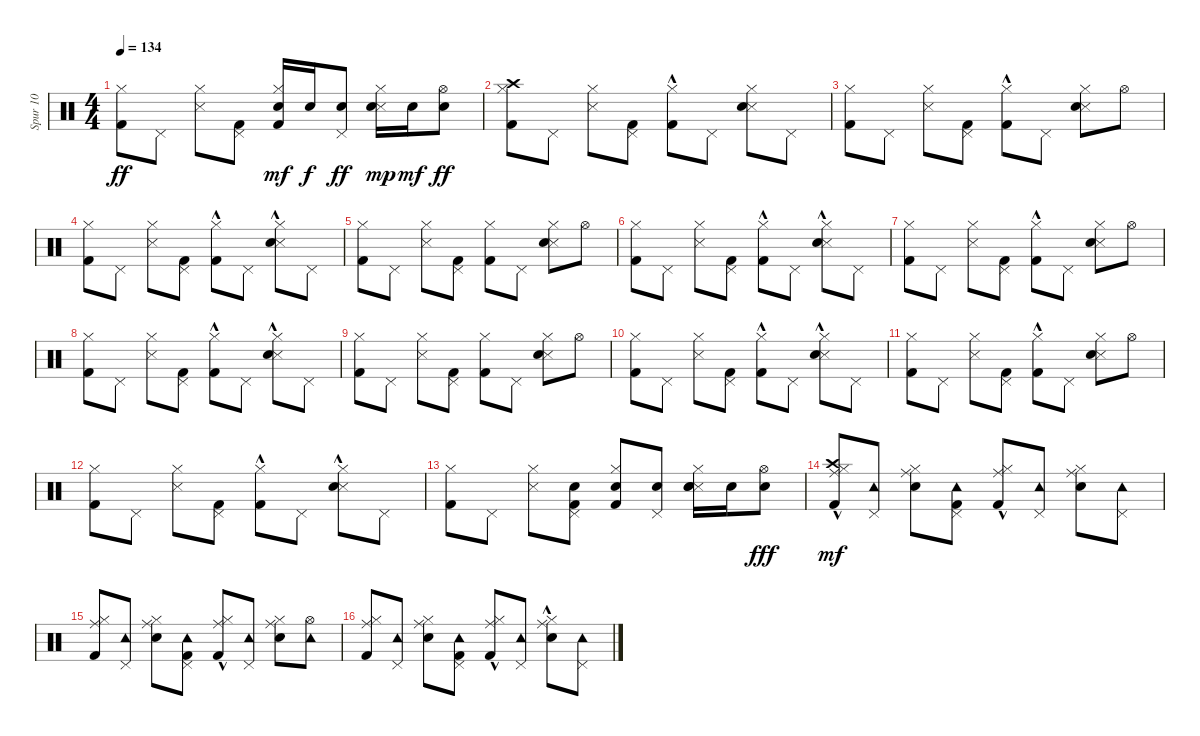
\track ("Spur 10" "Spur 10") {instrument percussion}
\staff {score}
\articulation defaults
\ts (4 4)
\tempo 134
\clef neutral
\ks c
("Kick (hit) 2" "Hi-Hat (closed)").8{dy ff} "Pedal Hi-Hat (hit)".8 ("Snare (side stick) 3" "Hi-Hat (closed)").8 ("Kick (hit) 2" "Pedal Hi-Hat (hit)").8 ("Kick (hit) 2" "Hi-Hat (closed)" "Electric Snare (hit)").16{dy mf} "Electric Snare (hit)".16{dy f} ("Pedal Hi-Hat (hit)" "Electric Snare (hit)").8{dy ff} ("Snare (side stick) 3" "Hi-Hat (closed)" "Snare (hit) 2").16{dy mp} "Snare (hit) 2".16{dy mf} ("Hi-Hat (open)" "Snare (hit) 2").8{dy ff} |
("Kick (hit) 2" "Hi-Hat (closed)" "Crash high (hit)").8 "Pedal Hi-Hat (hit)".8 ("Snare (side stick) 3" "Hi-Hat (closed)").8 ("Kick (hit) 2" "Pedal Hi-Hat (hit)").8 ("Kick (hit) 2"{hac} "Hi-Hat (closed)").8 "Pedal Hi-Hat (hit)".8 ("Snare (side stick) 3" "Snare (hit) 2" "Hi-Hat (closed)").8 "Pedal Hi-Hat (hit)".8 |
("Kick (hit) 2" "Hi-Hat (closed)").8 "Pedal Hi-Hat (hit)".8 ("Snare (side stick) 3" "Hi-Hat (closed)").8 ("Kick (hit) 2" "Pedal Hi-Hat (hit)").8 ("Kick (hit) 2"{hac} "Hi-Hat (closed)").8 "Pedal Hi-Hat (hit)".8 ("Snare (side stick) 3" "Snare (hit) 2" "Hi-Hat (closed)").8 "Hi-Hat (open)".8 |
("Kick (hit) 2" "Hi-Hat (closed)").8 "Pedal Hi-Hat (hit)".8 ("Snare (side stick) 3" "Hi-Hat (closed)").8 ("Kick (hit) 2" "Pedal Hi-Hat (hit)").8 ("Kick (hit) 2"{hac} "Hi-Hat (closed)").8 "Pedal Hi-Hat (hit)".8 ("Snare (side stick) 3" "Snare (hit) 2" "Hi-Hat (closed)"{hac}).8 "Pedal Hi-Hat (hit)".8 |
("Kick (hit) 2" "Hi-Hat (closed)").8 "Pedal Hi-Hat (hit)".8 ("Snare (side stick) 3" "Hi-Hat (closed)").8 ("Kick (hit) 2" "Pedal Hi-Hat (hit)").8 ("Kick (hit) 2" "Hi-Hat (closed)").8 "Pedal Hi-Hat (hit)".8 ("Snare (side stick) 3" "Snare (hit) 2" "Hi-Hat (closed)").8 "Hi-Hat (open)".8 |
("Kick (hit) 2" "Hi-Hat (closed)").8 "Pedal Hi-Hat (hit)".8 ("Snare (side stick) 3" "Hi-Hat (closed)").8 ("Kick (hit) 2" "Pedal Hi-Hat (hit)").8 ("Kick (hit) 2"{hac} "Hi-Hat (closed)").8 "Pedal Hi-Hat (hit)".8 ("Snare (side stick) 3" "Snare (hit) 2"{hac} "Hi-Hat (closed)").8 "Pedal Hi-Hat (hit)".8 |
("Kick (hit) 2" "Hi-Hat (closed)").8 "Pedal Hi-Hat (hit)".8 ("Snare (side stick) 3" "Hi-Hat (closed)").8 ("Kick (hit) 2" "Pedal Hi-Hat (hit)").8 ("Kick (hit) 2"{hac} "Hi-Hat (closed)").8 "Pedal Hi-Hat (hit)".8 ("Snare (side stick) 3" "Snare (hit) 2" "Hi-Hat (closed)").8 "Hi-Hat (open)".8 |
("Kick (hit) 2" "Hi-Hat (closed)").8 "Pedal Hi-Hat (hit)".8 ("Snare (side stick) 3" "Hi-Hat (closed)").8 ("Kick (hit) 2" "Pedal Hi-Hat (hit)").8 ("Kick (hit) 2"{hac} "Hi-Hat (closed)").8 "Pedal Hi-Hat (hit)".8 ("Snare (side stick) 3" "Snare (hit) 2"{hac} "Hi-Hat (closed)"{hac}).8 "Pedal Hi-Hat (hit)".8 |
("Kick (hit) 2" "Hi-Hat (closed)").8 "Pedal Hi-Hat (hit)".8 ("Snare (side stick) 3" "Hi-Hat (closed)").8 ("Kick (hit) 2" "Pedal Hi-Hat (hit)").8 ("Kick (hit) 2" "Hi-Hat (closed)").8 "Pedal Hi-Hat (hit)".8 ("Snare (side stick) 3" "Snare (hit) 2" "Hi-Hat (closed)").8 "Hi-Hat (open)".8 |
("Kick (hit) 2" "Hi-Hat (closed)").8 "Pedal Hi-Hat (hit)".8 ("Snare (side stick) 3" "Hi-Hat (closed)").8 ("Kick (hit) 2" "Pedal Hi-Hat (hit)").8 ("Kick (hit) 2"{hac} "Hi-Hat (closed)").8 "Pedal Hi-Hat (hit)".8 ("Snare (side stick) 3" "Snare (hit) 2"{hac} "Hi-Hat (closed)").8 "Pedal Hi-Hat (hit)".8 |
("Kick (hit) 2" "Hi-Hat (closed)").8 "Pedal Hi-Hat (hit)".8 ("Snare (side stick) 3" "Hi-Hat (closed)").8 ("Kick (hit) 2" "Pedal Hi-Hat (hit)").8 ("Kick (hit) 2"{hac} "Hi-Hat (closed)").8 "Pedal Hi-Hat (hit)".8 ("Snare (side stick) 3" "Snare (hit) 2" "Hi-Hat (closed)").8 "Hi-Hat (open)".8 |
("Kick (hit) 2" "Hi-Hat (closed)").8 "Pedal Hi-Hat (hit)".8 ("Snare (side stick) 3" "Hi-Hat (closed)").8 ("Kick (hit) 2" "Pedal Hi-Hat (hit)").8 ("Kick (hit) 2"{hac} "Hi-Hat (closed)").8 "Pedal Hi-Hat (hit)".8 ("Snare (side stick) 3" "Snare (hit) 2"{hac} "Hi-Hat (closed)"{hac}).8 "Pedal Hi-Hat (hit)".8 |
("Kick (hit) 2" "Hi-Hat (closed)").8 "Pedal Hi-Hat (hit)".8 ("Snare (side stick) 3" "Hi-Hat (closed)").8 ("Kick (hit) 2" "Pedal Hi-Hat (hit)" "Snare (hit) 2").8 ("Kick (hit) 2" "Hi-Hat (closed)" "Snare (hit) 2").8 ("Pedal Hi-Hat (hit)" "Snare (hit) 2").8 ("Snare (side stick) 3" "Snare (hit) 2" "Hi-Hat (closed)" "Snare (hit) 2").16 "Snare (hit) 2".16 ("Hi-Hat (open)" "Snare (hit) 2").8{dy fff} |
("Kick (hit) 2" "Hi-Hat (closed)" "Ride (middle)" "Crash high (hit)"{hac}).8{dy mf} ("Pedal Hi-Hat (hit)" "Tambourine (hit)").8 ("Electric Snare (hit)" "Hi-Hat (closed)" "Ride (middle)").8 ("Kick (hit) 2" "Pedal Hi-Hat (hit)" "Tambourine (hit)").8 ("Kick (hit) 2"{hac} "Hi-Hat (closed)" "Ride (middle)").8 ("Pedal Hi-Hat (hit)" "Tambourine (hit)").8 ("Electric Snare (hit)" "Hi-Hat (closed)" "Ride (middle)").8 ("Pedal Hi-Hat (hit)" "Tambourine (hit)").8 |
("Kick (hit) 2" "Hi-Hat (closed)" "Ride (middle)").8 ("Pedal Hi-Hat (hit)" "Tambourine (hit)").8 ("Electric Snare (hit)" "Hi-Hat (closed)" "Ride (middle)").8 ("Kick (hit) 2" "Pedal Hi-Hat (hit)" "Tambourine (hit)").8 ("Kick (hit) 2"{hac} "Hi-Hat (closed)" "Ride (middle)").8 ("Pedal Hi-Hat (hit)" "Tambourine (hit)").8 ("Electric Snare (hit)" "Hi-Hat (closed)" "Ride (middle)").8 ("Hi-Hat (open)" "Tambourine (hit)").8 |
("Kick (hit) 2" "Hi-Hat (closed)" "Ride (middle)").8 ("Pedal Hi-Hat (hit)" "Tambourine (hit)").8 ("Electric Snare (hit)" "Hi-Hat (closed)" "Ride (middle)").8 ("Kick (hit) 2" "Pedal Hi-Hat (hit)" "Tambourine (hit)").8 ("Kick (hit) 2"{hac} "Hi-Hat (closed)" "Ride (middle)").8 ("Pedal Hi-Hat (hit)" "Tambourine (hit)").8 ("Electric Snare (hit)" "Hi-Hat (closed)"{hac} "Ride (middle)").8 ("Pedal Hi-Hat (hit)" "Tambourine (hit)").8
